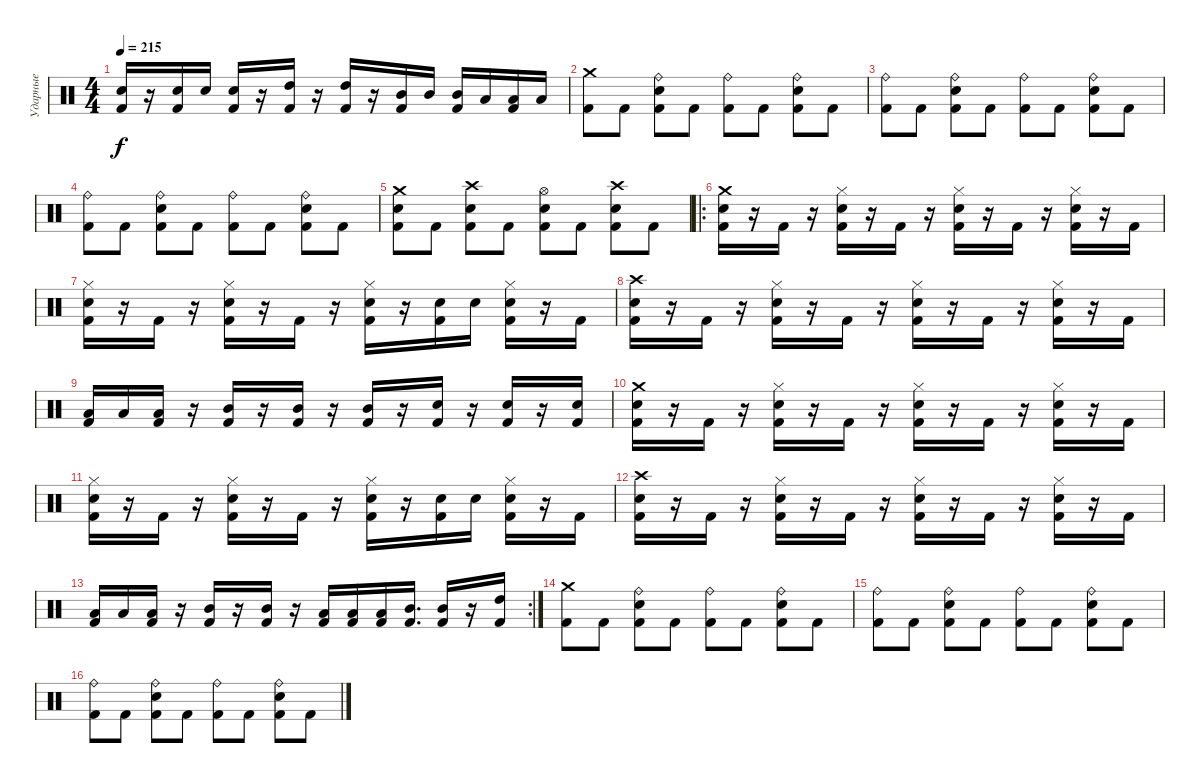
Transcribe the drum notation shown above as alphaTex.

\track ("Ударные" "Ударные") {instrument percussion}
\staff {score}
\articulation defaults
\ts (4 4)
\tempo 215
\clef neutral
\ks c
("Snare (hit) 2" "Kick (hit) 2").16{dy f} r.16 ("Snare (hit) 2" "Kick (hit) 2").16 "Snare (hit) 2".16 ("Snare (hit) 2" "Kick (hit) 2").16 r.16 ("High Tom (hit)" "Kick (hit) 2").16 r.16 ("High Tom (hit)" "Kick (hit) 2").16 r.16 ("Mid Tom (hit)" "Kick (hit) 2").16 "Mid Tom (hit)".16 ("Mid Tom (hit)" "Kick (hit) 2").16 "Low Tom (hit)".16 ("Low Tom (hit)" "Kick (hit) 2").16 "Low Tom (hit)".16 |
("Crash medium (hit)" "Kick (hit) 2").8 "Kick (hit) 2".8 ("Ride (bell)" "Snare (hit) 2" "Kick (hit) 2").8 "Kick (hit) 2".8 ("Ride (bell)" "Kick (hit) 2").8 "Kick (hit) 2".8 ("Ride (bell)" "Snare (hit) 2" "Kick (hit) 2").8 "Kick (hit) 2".8 |
("Ride (bell)" "Kick (hit) 2").8 "Kick (hit) 2".8 ("Ride (bell)" "Snare (hit) 2" "Kick (hit) 2").8 "Kick (hit) 2".8 ("Ride (bell)" "Kick (hit) 2").8 "Kick (hit) 2".8 ("Ride (bell)" "Snare (hit) 2" "Kick (hit) 2").8 "Kick (hit) 2".8 |
("Ride (bell)" "Kick (hit) 2").8 "Kick (hit) 2".8 ("Ride (bell)" "Snare (hit) 2" "Kick (hit) 2").8 "Kick (hit) 2".8 ("Ride (bell)" "Kick (hit) 2").8 "Kick (hit) 2".8 ("Ride (bell)" "Snare (hit) 2" "Kick (hit) 2").8 "Kick (hit) 2".8 |
("Crash medium (hit)" "Snare (hit) 2" "Kick (hit) 2").8 "Kick (hit) 2".8 ("Crash high (hit)" "Snare (hit) 2" "Kick (hit) 2").8 "Kick (hit) 2".8 ("Hi-Hat (open)" "Snare (hit) 2" "Kick (hit) 2").8 "Kick (hit) 2".8 ("Crash high (hit)" "Snare (hit) 2" "Kick (hit) 2").8 "Kick (hit) 2".8 |
\ro
("Crash medium (hit)" "Snare (hit) 2" "Kick (hit) 2").16 r.16 "Kick (hit) 2".16 r.16 ("Hi-Hat (closed)" "Snare (hit) 2" "Kick (hit) 2").16 r.16 "Kick (hit) 2".16 r.16 ("Hi-Hat (closed)" "Snare (hit) 2" "Kick (hit) 2").16 r.16 "Kick (hit) 2".16 r.16 ("Hi-Hat (closed)" "Snare (hit) 2" "Kick (hit) 2").16 r.16 "Kick (hit) 2".16 |
("Hi-Hat (closed)" "Snare (hit) 2" "Kick (hit) 2").16 r.16 "Kick (hit) 2".16 r.16 ("Hi-Hat (closed)" "Snare (hit) 2" "Kick (hit) 2").16 r.16 "Kick (hit) 2".16 r.16 ("Hi-Hat (closed)" "Snare (hit) 2" "Kick (hit) 2").16 r.16 ("Snare (hit) 2" "Kick (hit) 2").16 "Snare (hit) 2".16 ("Hi-Hat (closed)" "Snare (hit) 2" "Kick (hit) 2").16 r.16 "Kick (hit) 2".16 |
("Crash high (hit)" "Snare (hit) 2" "Kick (hit) 2").16 r.16 "Kick (hit) 2".16 r.16 ("Hi-Hat (closed)" "Snare (hit) 2" "Kick (hit) 2").16 r.16 "Kick (hit) 2".16 r.16 ("Hi-Hat (closed)" "Snare (hit) 2" "Kick (hit) 2").16 r.16 "Kick (hit) 2".16 r.16 ("Hi-Hat (closed)" "Snare (hit) 2" "Kick (hit) 2").16 r.16 "Kick (hit) 2".16 |
("Low Tom (hit)" "Kick (hit) 2").16 "Low Tom (hit)".16 ("Low Tom (hit)" "Kick (hit) 2").16 r.16 ("Mid Tom (hit)" "Kick (hit) 2").16 r.16 ("Mid Tom (hit)" "Kick (hit) 2").16 r.16 ("Mid Tom (hit)" "Kick (hit) 2").16 r.16 ("Snare (hit) 2" "Kick (hit) 2").16 r.16 ("Snare (hit) 2" "Kick (hit) 2").16 r.16 ("Snare (hit) 2" "Kick (hit) 2").16 |
("Crash medium (hit)" "Snare (hit) 2" "Kick (hit) 2").16 r.16 "Kick (hit) 2".16 r.16 ("Hi-Hat (closed)" "Snare (hit) 2" "Kick (hit) 2").16 r.16 "Kick (hit) 2".16 r.16 ("Hi-Hat (closed)" "Snare (hit) 2" "Kick (hit) 2").16 r.16 "Kick (hit) 2".16 r.16 ("Hi-Hat (closed)" "Snare (hit) 2" "Kick (hit) 2").16 r.16 "Kick (hit) 2".16 |
("Hi-Hat (closed)" "Snare (hit) 2" "Kick (hit) 2").16 r.16 "Kick (hit) 2".16 r.16 ("Hi-Hat (closed)" "Snare (hit) 2" "Kick (hit) 2").16 r.16 "Kick (hit) 2".16 r.16 ("Hi-Hat (closed)" "Snare (hit) 2" "Kick (hit) 2").16 r.16 ("Snare (hit) 2" "Kick (hit) 2").16 "Snare (hit) 2".16 ("Hi-Hat (closed)" "Snare (hit) 2" "Kick (hit) 2").16 r.16 "Kick (hit) 2".16 |
("Crash high (hit)" "Snare (hit) 2" "Kick (hit) 2").16 r.16 "Kick (hit) 2".16 r.16 ("Hi-Hat (closed)" "Snare (hit) 2" "Kick (hit) 2").16 r.16 "Kick (hit) 2".16 r.16 ("Hi-Hat (closed)" "Snare (hit) 2" "Kick (hit) 2").16 r.16 "Kick (hit) 2".16 r.16 ("Hi-Hat (closed)" "Snare (hit) 2" "Kick (hit) 2").16 r.16 "Kick (hit) 2".16 |
\rc 2
("Low Tom (hit)" "Kick (hit) 2").16 "Low Tom (hit)".16 ("Low Tom (hit)" "Kick (hit) 2").16 r.16 ("Mid Tom (hit)" "Kick (hit) 2").16 r.16 ("Mid Tom (hit)" "Kick (hit) 2").16 r.16 ("Low Tom (hit)" "Kick (hit) 2").16 ("Low Tom (hit)" "Kick (hit) 2").16 ("Low Tom (hit)" "Kick (hit) 2").16 ("Mid Tom (hit)" "Kick (hit) 2").16{d} ("Mid Tom (hit)" "Kick (hit) 2").16 r.16 ("High Tom (hit)" "Kick (hit) 2").16 |
("Crash medium (hit)" "Kick (hit) 2").8 "Kick (hit) 2".8 ("Ride (bell)" "Snare (hit) 2" "Kick (hit) 2").8 "Kick (hit) 2".8 ("Ride (bell)" "Kick (hit) 2").8 "Kick (hit) 2".8 ("Ride (bell)" "Snare (hit) 2" "Kick (hit) 2").8 "Kick (hit) 2".8 |
("Ride (bell)" "Kick (hit) 2").8 "Kick (hit) 2".8 ("Ride (bell)" "Snare (hit) 2" "Kick (hit) 2").8 "Kick (hit) 2".8 ("Ride (bell)" "Kick (hit) 2").8 "Kick (hit) 2".8 ("Ride (bell)" "Snare (hit) 2" "Kick (hit) 2").8 "Kick (hit) 2".8 |
("Ride (bell)" "Kick (hit) 2").8 "Kick (hit) 2".8 ("Ride (bell)" "Snare (hit) 2" "Kick (hit) 2").8 "Kick (hit) 2".8 ("Ride (bell)" "Kick (hit) 2").8 "Kick (hit) 2".8 ("Ride (bell)" "Snare (hit) 2" "Kick (hit) 2").8 "Kick (hit) 2".8
